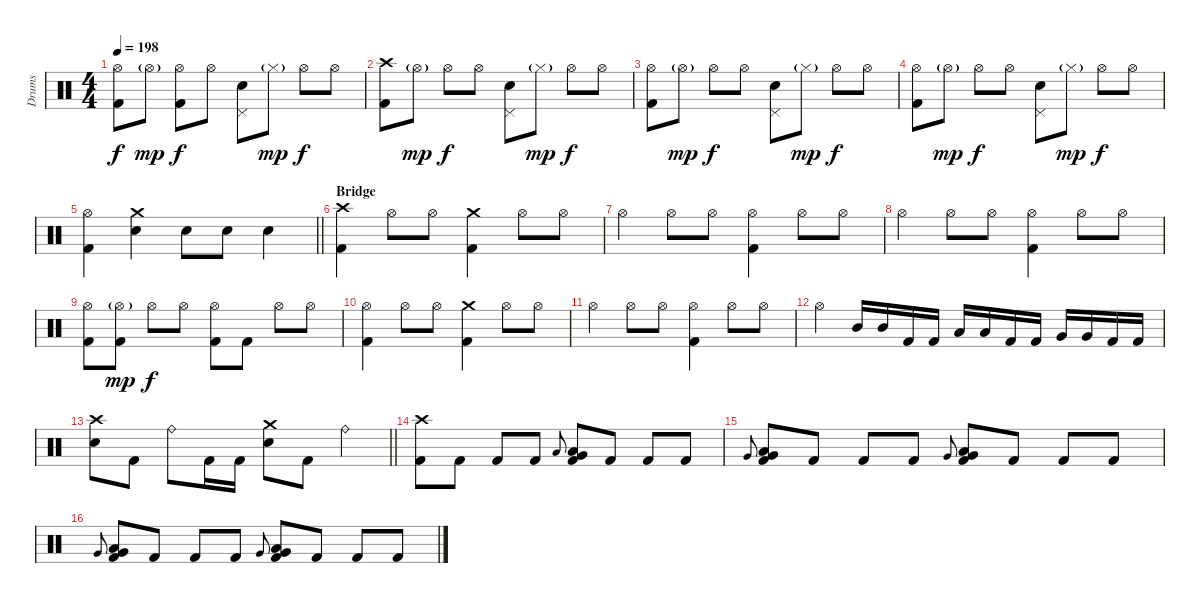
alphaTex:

\track ("Drums" "Drums") {instrument percussion}
\staff {score}
\articulation defaults
\ts (4 4)
\tempo 198
\clef neutral
\ks c
("Hi-Hat (open)" "Kick (hit) 2").8{dy f} "Hi-Hat (open)"{g}.8{dy mp} ("Hi-Hat (open)" "Kick (hit) 2").8{dy f} "Hi-Hat (open)".8 ("Pedal Hi-Hat (hit)" "Electric Snare (hit)").8 "Hi-Hat (closed)"{g}.8{dy mp} "Hi-Hat (open)".8{dy f} "Hi-Hat (open)".8 |
("Crash high (hit)" "Kick (hit) 2").8 "Hi-Hat (open)"{g}.8{dy mp} "Hi-Hat (open)".8{dy f} "Hi-Hat (open)".8 ("Pedal Hi-Hat (hit)" "Electric Snare (hit)").8 "Hi-Hat (closed)"{g}.8{dy mp} "Hi-Hat (open)".8{dy f} "Hi-Hat (open)".8 |
("Hi-Hat (open)" "Kick (hit) 2").8 "Hi-Hat (open)"{g}.8{dy mp} "Hi-Hat (open)".8{dy f} "Hi-Hat (open)".8 ("Pedal Hi-Hat (hit)" "Electric Snare (hit)").8 "Hi-Hat (closed)"{g}.8{dy mp} "Hi-Hat (open)".8{dy f} "Hi-Hat (open)".8 |
("Hi-Hat (open)" "Kick (hit) 2").8 "Hi-Hat (open)"{g}.8{dy mp} "Hi-Hat (open)".8{dy f} "Hi-Hat (open)".8 ("Pedal Hi-Hat (hit)" "Electric Snare (hit)").8 "Hi-Hat (closed)"{g}.8{dy mp} "Hi-Hat (open)".8{dy f} "Hi-Hat (open)".8 |
\barLineRight lightlight
("Hi-Hat (open)" "Kick (hit) 2").4 ("Crash medium (hit)" "Electric Snare (hit)").4 "Electric Snare (hit)".8 "Electric Snare (hit)".8 "Electric Snare (hit)".4 |
\section ("" "Bridge")
("Crash high (hit)" "Kick (hit) 2").4 "Hi-Hat (open)".8 "Hi-Hat (open)".8 ("Crash medium (hit)" "Kick (hit) 2").4 "Hi-Hat (open)".8 "Hi-Hat (open)".8 |
"Hi-Hat (open)".4 "Hi-Hat (open)".8 "Hi-Hat (open)".8 ("Hi-Hat (open)" "Kick (hit) 2").4 "Hi-Hat (open)".8 "Hi-Hat (open)".8 |
"Hi-Hat (open)".4 "Hi-Hat (open)".8 "Hi-Hat (open)".8 ("Hi-Hat (open)" "Kick (hit) 2").4 "Hi-Hat (open)".8 "Hi-Hat (open)".8 |
("Hi-Hat (open)" "Kick (hit) 2").8 ("Hi-Hat (open)"{g} "Kick (hit) 2").8{dy mp} "Hi-Hat (open)".8{dy f} "Hi-Hat (open)".8 ("Hi-Hat (open)" "Kick (hit) 2").8 "Kick (hit) 2".8 "Hi-Hat (open)".8 "Hi-Hat (open)".8 |
("Hi-Hat (open)" "Kick (hit) 2").4 "Hi-Hat (open)".8 "Hi-Hat (open)".8 ("Crash medium (hit)" "Kick (hit) 2").4 "Hi-Hat (open)".8 "Hi-Hat (open)".8 |
"Hi-Hat (open)".4 "Hi-Hat (open)".8 "Hi-Hat (open)".8 ("Hi-Hat (open)" "Kick (hit) 2").4 "Hi-Hat (open)".8 "Hi-Hat (open)".8 |
"Hi-Hat (open)".4 "Mid Tom (hit)".16 "Mid Tom (hit)".16 "Kick (hit) 2".16 "Kick (hit) 2".16 "Low Tom (hit)".16 "Low Tom (hit)".16 "Kick (hit) 2".16 "Kick (hit) 2".16 "Very Low Tom (hit)".16 "Very Low Tom (hit)".16 "Kick (hit) 2".16 "Kick (hit) 2".16 |
\barLineRight lightlight
("Crash high (hit)" "Electric Snare (hit)").8 "Kick (hit) 2".8 "Ride (bell)".8 "Kick (hit) 2".16 "Kick (hit) 2".16 ("Crash medium (hit)" "Electric Snare (hit)").8 "Kick (hit) 2".8 "Ride (bell)".4 |
("Crash high (hit)" "Kick (hit) 2").8 "Kick (hit) 2".8 "Kick (hit) 2".8 "Kick (hit) 2".8 "Low Tom (hit)".8{gr onbeat} ("Low Tom (hit)" "Very Low Tom (hit)" "Kick (hit) 2").8 "Kick (hit) 2".8 "Kick (hit) 2".8 "Kick (hit) 2".8 |
"Very Low Tom (hit)".8{gr onbeat} ("Very Low Tom (hit)" "Low Floor Tom (hit)" "Kick (hit) 2").8 "Kick (hit) 2".8 "Kick (hit) 2".8 "Kick (hit) 2".8 "Very Low Tom (hit)".8{gr onbeat} ("Very Low Tom (hit)" "Low Floor Tom (hit)" "Kick (hit) 2").8 "Kick (hit) 2".8 "Kick (hit) 2".8 "Kick (hit) 2".8 |
"Very Low Tom (hit)".8{gr onbeat} ("Very Low Tom (hit)" "Low Floor Tom (hit)" "Kick (hit) 2").8 "Kick (hit) 2".8 "Kick (hit) 2".8 "Kick (hit) 2".8 "Very Low Tom (hit)".8{gr onbeat} ("Very Low Tom (hit)" "Low Floor Tom (hit)" "Kick (hit) 2").8 "Kick (hit) 2".8 "Kick (hit) 2".8 "Kick (hit) 2".8
